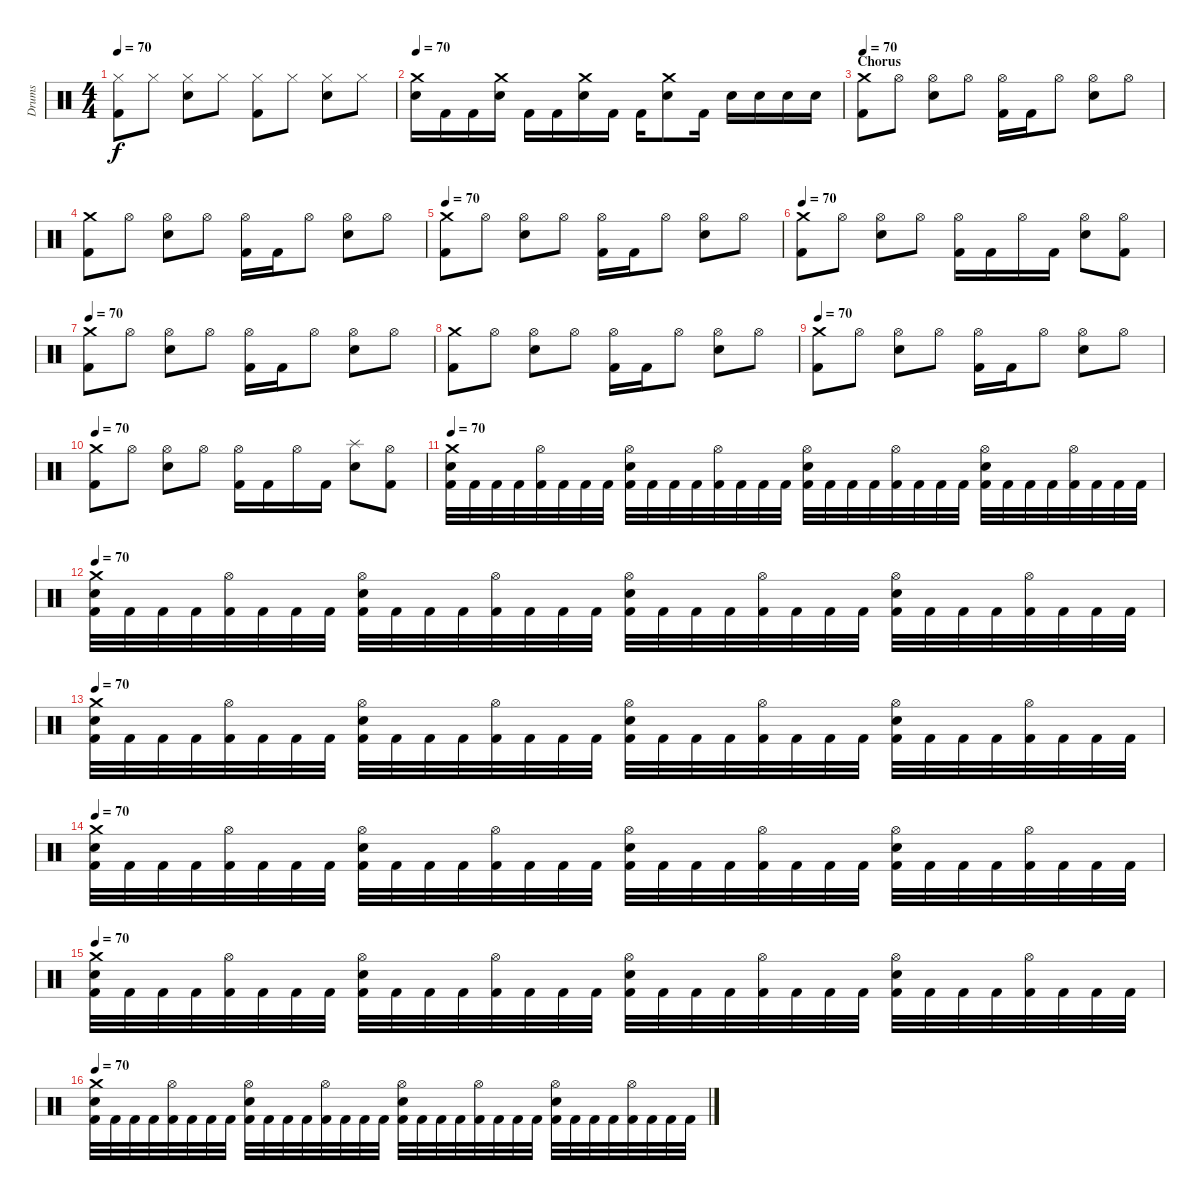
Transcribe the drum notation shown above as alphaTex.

\track ("Drums" "Drums") {instrument percussion}
\staff {score}
\articulation defaults
\ts (4 4)
\tempo 70
\clef neutral
\ks c
("Hi-Hat (closed)" "Kick (hit) 2").8{dy f} "Hi-Hat (closed)".8 ("Hi-Hat (closed)" "Snare (hit) 2").8 "Hi-Hat (closed)".8 ("Hi-Hat (closed)" "Kick (hit) 2").8 "Hi-Hat (closed)".8 ("Hi-Hat (closed)" "Snare (hit) 2").8 "Hi-Hat (closed)".8 |
\tempo 70
("Crash medium (hit)" "Snare (hit) 2").16 "Kick (hit) 2".16 "Kick (hit) 2".16 ("Crash medium (hit)" "Snare (hit) 2").16 "Kick (hit) 2".16 "Kick (hit) 2".16 ("Crash medium (hit)" "Snare (hit) 2").16 "Kick (hit) 2".16 "Kick (hit) 2".16 ("Crash medium (hit)" "Snare (hit) 2").8 "Kick (hit) 2".16 "Snare (hit) 2".16 "Snare (hit) 2".16 "Snare (hit) 2".16 "Snare (hit) 2".16 |
\section ("" "Chorus")
\tempo 70
("Crash medium (hit)" "Kick (hit) 2").8 "Hi-Hat (open)".8 ("Hi-Hat (open)" "Snare (hit) 2").8 "Hi-Hat (open)".8 ("Hi-Hat (open)" "Kick (hit) 2").16 "Kick (hit) 2".16 "Hi-Hat (open)".8 ("Hi-Hat (open)" "Snare (hit) 2").8 "Hi-Hat (open)".8 |
("Crash medium (hit)" "Kick (hit) 2").8 "Hi-Hat (open)".8 ("Hi-Hat (open)" "Snare (hit) 2").8 "Hi-Hat (open)".8 ("Hi-Hat (open)" "Kick (hit) 2").16 "Kick (hit) 2".16 "Hi-Hat (open)".8 ("Hi-Hat (open)" "Snare (hit) 2").8 "Hi-Hat (open)".8 |
\tempo 70
("Crash medium (hit)" "Kick (hit) 2").8 "Hi-Hat (open)".8 ("Hi-Hat (open)" "Snare (hit) 2").8 "Hi-Hat (open)".8 ("Hi-Hat (open)" "Kick (hit) 2").16 "Kick (hit) 2".16 "Hi-Hat (open)".8 ("Hi-Hat (open)" "Snare (hit) 2").8 "Hi-Hat (open)".8 |
\tempo 70
("Crash medium (hit)" "Kick (hit) 2").8 "Hi-Hat (open)".8 ("Hi-Hat (open)" "Snare (hit) 2").8 "Hi-Hat (open)".8 ("Hi-Hat (open)" "Kick (hit) 2").16 "Kick (hit) 2".16 "Hi-Hat (open)".16 "Kick (hit) 2".16 ("Hi-Hat (open)" "Snare (hit) 2").8 ("Hi-Hat (open)" "Kick (hit) 2").8 |
\tempo 70
("Crash medium (hit)" "Kick (hit) 2").8 "Hi-Hat (open)".8 ("Hi-Hat (open)" "Snare (hit) 2").8 "Hi-Hat (open)".8 ("Hi-Hat (open)" "Kick (hit) 2").16 "Kick (hit) 2".16 "Hi-Hat (open)".8 ("Hi-Hat (open)" "Snare (hit) 2").8 "Hi-Hat (open)".8 |
("Crash medium (hit)" "Kick (hit) 2").8 "Hi-Hat (open)".8 ("Hi-Hat (open)" "Snare (hit) 2").8 "Hi-Hat (open)".8 ("Hi-Hat (open)" "Kick (hit) 2").16 "Kick (hit) 2".16 "Hi-Hat (open)".8 ("Hi-Hat (open)" "Snare (hit) 2").8 "Hi-Hat (open)".8 |
\tempo 70
("Crash medium (hit)" "Kick (hit) 2").8 "Hi-Hat (open)".8 ("Hi-Hat (open)" "Snare (hit) 2").8 "Hi-Hat (open)".8 ("Hi-Hat (open)" "Kick (hit) 2").16 "Kick (hit) 2".16 "Hi-Hat (open)".8 ("Hi-Hat (open)" "Snare (hit) 2").8 "Hi-Hat (open)".8 |
\tempo 70
("Crash medium (hit)" "Kick (hit) 2").8 "Hi-Hat (open)".8 ("Hi-Hat (open)" "Snare (hit) 2").8 "Hi-Hat (open)".8 ("Hi-Hat (open)" "Kick (hit) 2").16 "Kick (hit) 2".16 "Hi-Hat (open)".16 "Kick (hit) 2".16 ("Splash (hit)" "Snare (hit) 2").8 ("Hi-Hat (open)" "Kick (hit) 2").8 |
\tempo 70
("Crash medium (hit)" "Snare (hit) 2" "Kick (hit) 2").32 "Kick (hit) 2".32 "Kick (hit) 2".32 "Kick (hit) 2".32 ("Hi-Hat (open)" "Kick (hit) 2").32 "Kick (hit) 2".32 "Kick (hit) 2".32 "Kick (hit) 2".32 ("Hi-Hat (open)" "Snare (hit) 2" "Kick (hit) 2").32 "Kick (hit) 2".32 "Kick (hit) 2".32 "Kick (hit) 2".32 ("Hi-Hat (open)" "Kick (hit) 2").32 "Kick (hit) 2".32 "Kick (hit) 2".32 "Kick (hit) 2".32 ("Hi-Hat (open)" "Snare (hit) 2" "Kick (hit) 2").32 "Kick (hit) 2".32 "Kick (hit) 2".32 "Kick (hit) 2".32 ("Hi-Hat (open)" "Kick (hit) 2").32 "Kick (hit) 2".32 "Kick (hit) 2".32 "Kick (hit) 2".32 ("Hi-Hat (open)" "Snare (hit) 2" "Kick (hit) 2").32 "Kick (hit) 2".32 "Kick (hit) 2".32 "Kick (hit) 2".32 ("Hi-Hat (open)" "Kick (hit) 2").32 "Kick (hit) 2".32 "Kick (hit) 2".32 "Kick (hit) 2".32 |
\tempo 70
("Crash medium (hit)" "Snare (hit) 2" "Kick (hit) 2").32 "Kick (hit) 2".32 "Kick (hit) 2".32 "Kick (hit) 2".32 ("Hi-Hat (open)" "Kick (hit) 2").32 "Kick (hit) 2".32 "Kick (hit) 2".32 "Kick (hit) 2".32 ("Hi-Hat (open)" "Snare (hit) 2" "Kick (hit) 2").32 "Kick (hit) 2".32 "Kick (hit) 2".32 "Kick (hit) 2".32 ("Hi-Hat (open)" "Kick (hit) 2").32 "Kick (hit) 2".32 "Kick (hit) 2".32 "Kick (hit) 2".32 ("Hi-Hat (open)" "Snare (hit) 2" "Kick (hit) 2").32 "Kick (hit) 2".32 "Kick (hit) 2".32 "Kick (hit) 2".32 ("Hi-Hat (open)" "Kick (hit) 2").32 "Kick (hit) 2".32 "Kick (hit) 2".32 "Kick (hit) 2".32 ("Hi-Hat (open)" "Snare (hit) 2" "Kick (hit) 2").32 "Kick (hit) 2".32 "Kick (hit) 2".32 "Kick (hit) 2".32 ("Hi-Hat (open)" "Kick (hit) 2").32 "Kick (hit) 2".32 "Kick (hit) 2".32 "Kick (hit) 2".32 |
\tempo 70
("Crash medium (hit)" "Snare (hit) 2" "Kick (hit) 2").32 "Kick (hit) 2".32 "Kick (hit) 2".32 "Kick (hit) 2".32 ("Hi-Hat (open)" "Kick (hit) 2").32 "Kick (hit) 2".32 "Kick (hit) 2".32 "Kick (hit) 2".32 ("Hi-Hat (open)" "Snare (hit) 2" "Kick (hit) 2").32 "Kick (hit) 2".32 "Kick (hit) 2".32 "Kick (hit) 2".32 ("Hi-Hat (open)" "Kick (hit) 2").32 "Kick (hit) 2".32 "Kick (hit) 2".32 "Kick (hit) 2".32 ("Hi-Hat (open)" "Snare (hit) 2" "Kick (hit) 2").32 "Kick (hit) 2".32 "Kick (hit) 2".32 "Kick (hit) 2".32 ("Hi-Hat (open)" "Kick (hit) 2").32 "Kick (hit) 2".32 "Kick (hit) 2".32 "Kick (hit) 2".32 ("Hi-Hat (open)" "Snare (hit) 2" "Kick (hit) 2").32 "Kick (hit) 2".32 "Kick (hit) 2".32 "Kick (hit) 2".32 ("Hi-Hat (open)" "Kick (hit) 2").32 "Kick (hit) 2".32 "Kick (hit) 2".32 "Kick (hit) 2".32 |
\tempo 70
("Crash medium (hit)" "Snare (hit) 2" "Kick (hit) 2").32 "Kick (hit) 2".32 "Kick (hit) 2".32 "Kick (hit) 2".32 ("Hi-Hat (open)" "Kick (hit) 2").32 "Kick (hit) 2".32 "Kick (hit) 2".32 "Kick (hit) 2".32 ("Hi-Hat (open)" "Snare (hit) 2" "Kick (hit) 2").32 "Kick (hit) 2".32 "Kick (hit) 2".32 "Kick (hit) 2".32 ("Hi-Hat (open)" "Kick (hit) 2").32 "Kick (hit) 2".32 "Kick (hit) 2".32 "Kick (hit) 2".32 ("Hi-Hat (open)" "Snare (hit) 2" "Kick (hit) 2").32 "Kick (hit) 2".32 "Kick (hit) 2".32 "Kick (hit) 2".32 ("Hi-Hat (open)" "Kick (hit) 2").32 "Kick (hit) 2".32 "Kick (hit) 2".32 "Kick (hit) 2".32 ("Hi-Hat (open)" "Snare (hit) 2" "Kick (hit) 2").32 "Kick (hit) 2".32 "Kick (hit) 2".32 "Kick (hit) 2".32 ("Hi-Hat (open)" "Kick (hit) 2").32 "Kick (hit) 2".32 "Kick (hit) 2".32 "Kick (hit) 2".32 |
\tempo 70
("Crash medium (hit)" "Snare (hit) 2" "Kick (hit) 2").32 "Kick (hit) 2".32 "Kick (hit) 2".32 "Kick (hit) 2".32 ("Hi-Hat (open)" "Kick (hit) 2").32 "Kick (hit) 2".32 "Kick (hit) 2".32 "Kick (hit) 2".32 ("Hi-Hat (open)" "Snare (hit) 2" "Kick (hit) 2").32 "Kick (hit) 2".32 "Kick (hit) 2".32 "Kick (hit) 2".32 ("Hi-Hat (open)" "Kick (hit) 2").32 "Kick (hit) 2".32 "Kick (hit) 2".32 "Kick (hit) 2".32 ("Hi-Hat (open)" "Snare (hit) 2" "Kick (hit) 2").32 "Kick (hit) 2".32 "Kick (hit) 2".32 "Kick (hit) 2".32 ("Hi-Hat (open)" "Kick (hit) 2").32 "Kick (hit) 2".32 "Kick (hit) 2".32 "Kick (hit) 2".32 ("Hi-Hat (open)" "Snare (hit) 2" "Kick (hit) 2").32 "Kick (hit) 2".32 "Kick (hit) 2".32 "Kick (hit) 2".32 ("Hi-Hat (open)" "Kick (hit) 2").32 "Kick (hit) 2".32 "Kick (hit) 2".32 "Kick (hit) 2".32 |
\tempo 70
("Crash medium (hit)" "Snare (hit) 2" "Kick (hit) 2").32 "Kick (hit) 2".32 "Kick (hit) 2".32 "Kick (hit) 2".32 ("Hi-Hat (open)" "Kick (hit) 2").32 "Kick (hit) 2".32 "Kick (hit) 2".32 "Kick (hit) 2".32 ("Hi-Hat (open)" "Snare (hit) 2" "Kick (hit) 2").32 "Kick (hit) 2".32 "Kick (hit) 2".32 "Kick (hit) 2".32 ("Hi-Hat (open)" "Kick (hit) 2").32 "Kick (hit) 2".32 "Kick (hit) 2".32 "Kick (hit) 2".32 ("Hi-Hat (open)" "Snare (hit) 2" "Kick (hit) 2").32 "Kick (hit) 2".32 "Kick (hit) 2".32 "Kick (hit) 2".32 ("Hi-Hat (open)" "Kick (hit) 2").32 "Kick (hit) 2".32 "Kick (hit) 2".32 "Kick (hit) 2".32 ("Hi-Hat (open)" "Snare (hit) 2" "Kick (hit) 2").32 "Kick (hit) 2".32 "Kick (hit) 2".32 "Kick (hit) 2".32 ("Hi-Hat (open)" "Kick (hit) 2").32 "Kick (hit) 2".32 "Kick (hit) 2".32 "Kick (hit) 2".32
